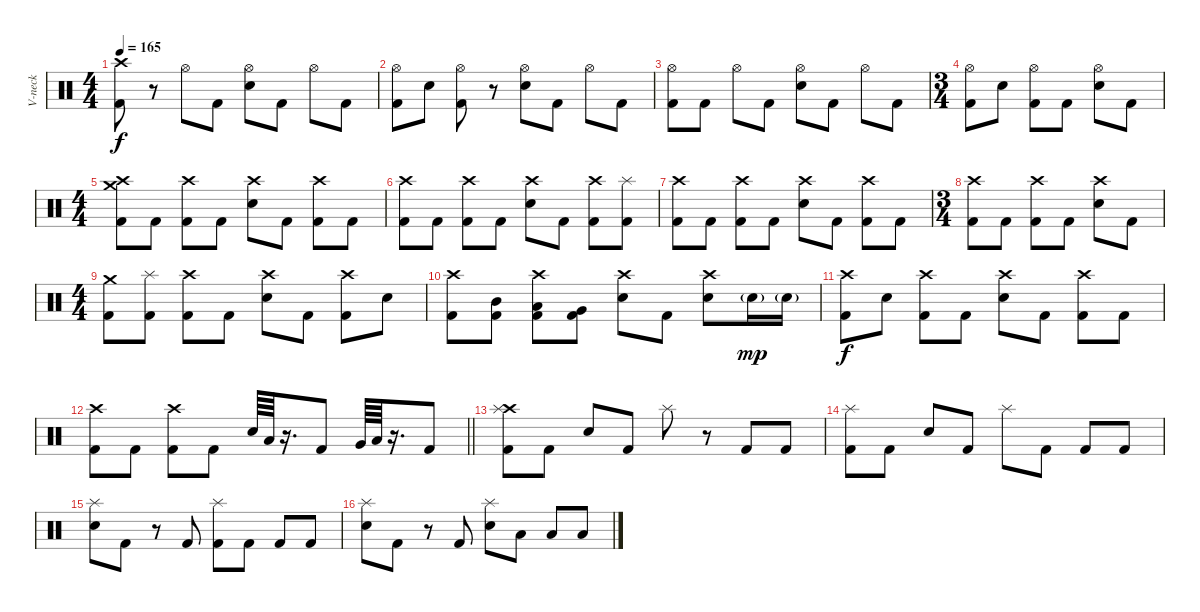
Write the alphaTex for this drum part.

\track ("V-neck" "V-neck") {instrument percussion}
\staff {score}
\articulation defaults
\ts (4 4)
\tempo 165
\clef neutral
\ks c
("Crash high (hit)" "Kick (hit) 2").8{dy f} r.8 "Hi-Hat (open)".8 "Kick (hit) 2".8 ("Hi-Hat (open)" "Electric Snare (hit)").8 "Kick (hit) 2".8 "Hi-Hat (open)".8 "Kick (hit) 2".8 |
("Hi-Hat (open)" "Kick (hit) 2").8 "Electric Snare (hit)".8 ("Hi-Hat (open)" "Kick (hit) 2").8 r.8 ("Hi-Hat (open)" "Electric Snare (hit)").8 "Kick (hit) 2".8 "Hi-Hat (open)".8 "Kick (hit) 2".8 |
("Hi-Hat (open)" "Kick (hit) 2").8 "Kick (hit) 2".8 "Hi-Hat (open)".8 "Kick (hit) 2".8 ("Hi-Hat (open)" "Electric Snare (hit)").8 "Kick (hit) 2".8 "Hi-Hat (open)".8 "Kick (hit) 2".8 |
\ts (3 4)
("Hi-Hat (open)" "Kick (hit) 2").8 "Electric Snare (hit)".8 ("Hi-Hat (open)" "Kick (hit) 2").8 "Kick (hit) 2".8 ("Hi-Hat (open)" "Electric Snare (hit)").8 "Kick (hit) 2".8 |
\ts (4 4)
("Crash medium (hit)" "Crash high (hit)" "Kick (hit) 2").8 "Kick (hit) 2".8 ("Crash high (hit)" "Kick (hit) 2").8 "Kick (hit) 2".8 ("Crash high (hit)" "Electric Snare (hit)").8 "Kick (hit) 2".8 ("Crash high (hit)" "Kick (hit) 2").8 "Kick (hit) 2".8 |
("Crash high (hit)" "Kick (hit) 2").8 "Kick (hit) 2".8 ("Crash high (hit)" "Kick (hit) 2").8 "Kick (hit) 2".8 ("Crash high (hit)" "Electric Snare (hit)").8 "Kick (hit) 2".8 ("Crash high (hit)" "Kick (hit) 2").8 ("Splash (hit)" "Kick (hit) 2").8 |
("Crash high (hit)" "Kick (hit) 2").8 "Kick (hit) 2".8 ("Crash high (hit)" "Kick (hit) 2").8 "Kick (hit) 2".8 ("Crash high (hit)" "Electric Snare (hit)").8 "Kick (hit) 2".8 ("Crash high (hit)" "Kick (hit) 2").8 "Kick (hit) 2".8 |
\ts (3 4)
("Crash high (hit)" "Kick (hit) 2").8 "Kick (hit) 2".8 ("Crash high (hit)" "Kick (hit) 2").8 "Kick (hit) 2".8 ("Crash high (hit)" "Electric Snare (hit)").8 "Kick (hit) 2".8 |
\ts (4 4)
("Crash medium (hit)" "Kick (hit) 2").8 ("Splash (hit)" "Kick (hit) 2").8 ("Crash high (hit)" "Kick (hit) 2").8 "Kick (hit) 2".8 ("Crash high (hit)" "Electric Snare (hit)").8 "Kick (hit) 2".8 ("Crash high (hit)" "Kick (hit) 2").8 "Electric Snare (hit)".8 |
("Crash high (hit)" "Kick (hit) 2").8 ("Mid Tom (hit)" "Kick (hit) 2").8 ("Crash high (hit)" "Low Tom (hit)" "Kick (hit) 2").8 ("Very Low Tom (hit)" "Kick (hit) 2").8 ("Crash high (hit)" "Electric Snare (hit)").8 "Kick (hit) 2".8 ("Crash high (hit)" "Electric Snare (hit)").8 "Electric Snare (hit)"{g}.16{dy mp} "Electric Snare (hit)"{g}.16 |
("Crash high (hit)" "Kick (hit) 2").8{dy f} "Electric Snare (hit)".8 ("Crash high (hit)" "Kick (hit) 2").8 "Kick (hit) 2".8 ("Crash high (hit)" "Electric Snare (hit)").8 "Kick (hit) 2".8 ("Crash high (hit)" "Kick (hit) 2").8 "Kick (hit) 2".8 |
\barLineRight lightlight
("Crash high (hit)" "Kick (hit) 2").8 "Kick (hit) 2".8 ("Crash high (hit)" "Kick (hit) 2").8 "Kick (hit) 2".8 "Electric Snare (hit)".64 "Low Tom (hit)".64 r.16{d} "Kick (hit) 2".8 "Very Low Tom (hit)".64 "Low Tom (hit)".64 r.16{d} "Kick (hit) 2".8 |
\section ("" "")
("Crash high (hit)" "Splash (hit)" "Kick (hit) 2").8 "Kick (hit) 2".8 "Electric Snare (hit)".8 "Kick (hit) 2".8 "Splash (hit)".8 r.8 "Kick (hit) 2".8 "Kick (hit) 2".8 |
("Splash (hit)" "Kick (hit) 2").8 "Kick (hit) 2".8 "Electric Snare (hit)".8 "Kick (hit) 2".8 "Splash (hit)".8 "Kick (hit) 2".8 "Kick (hit) 2".8 "Kick (hit) 2".8 |
("Splash (hit)" "Electric Snare (hit)").8 "Kick (hit) 2".8 r.8 "Kick (hit) 2".8 ("Splash (hit)" "Kick (hit) 2").8 "Kick (hit) 2".8 "Kick (hit) 2".8 "Kick (hit) 2".8 |
("Splash (hit)" "Electric Snare (hit)").8 "Kick (hit) 2".8 r.8 "Kick (hit) 2".8 ("Splash (hit)" "Electric Snare (hit)").8 "Low Tom (hit)".8 "Low Tom (hit)".8 "Low Tom (hit)".8
